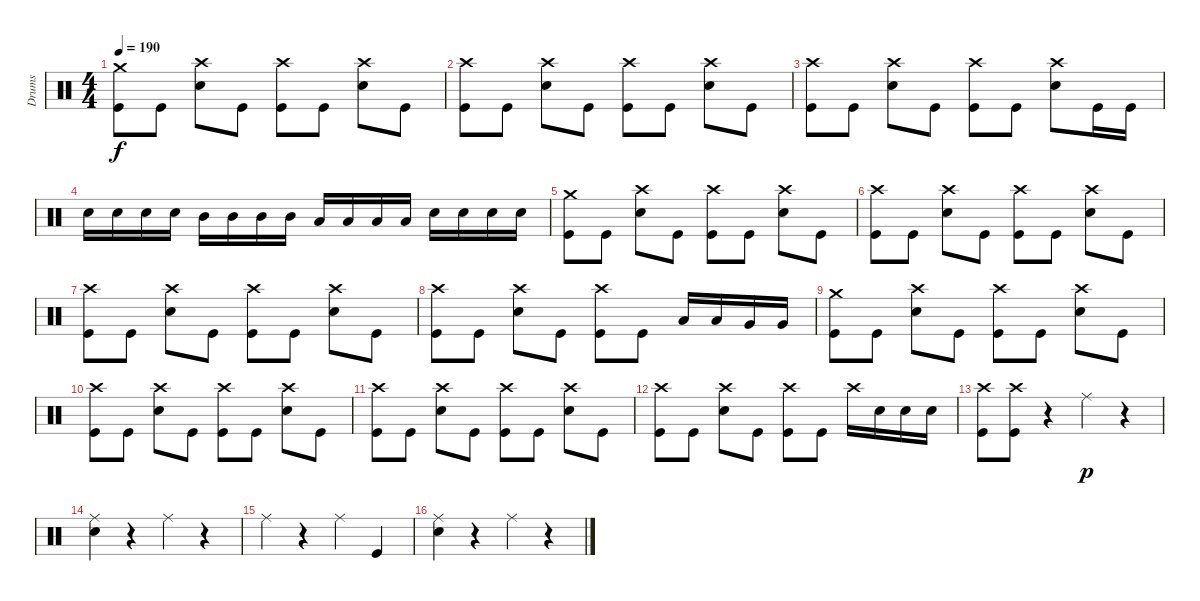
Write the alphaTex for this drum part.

\track ("Drums" "Drums") {instrument percussion}
\staff {score}
\articulation defaults
\ts (4 4)
\tempo 190
\clef neutral
\ks c
("Crash medium (hit)" "Kick (hit)").8{dy f} "Kick (hit)".8 ("Crash high (hit)" "Snare (hit) 2").8 "Kick (hit)".8 ("Crash high (hit)" "Kick (hit)").8 "Kick (hit)".8 ("Crash high (hit)" "Snare (hit) 2").8 "Kick (hit)".8 |
("Crash high (hit)" "Kick (hit)").8 "Kick (hit)".8 ("Crash high (hit)" "Snare (hit) 2").8 "Kick (hit)".8 ("Crash high (hit)" "Kick (hit)").8 "Kick (hit)".8 ("Crash high (hit)" "Snare (hit) 2").8 "Kick (hit)".8 |
("Crash high (hit)" "Kick (hit)").8 "Kick (hit)".8 ("Crash high (hit)" "Snare (hit) 2").8 "Kick (hit)".8 ("Crash high (hit)" "Kick (hit)").8 "Kick (hit)".8 ("Crash high (hit)" "Snare (hit) 2").8 "Kick (hit)".16 "Kick (hit)".16 |
"Snare (hit) 2".16 "Snare (hit) 2".16 "Snare (hit) 2".16 "Snare (hit) 2".16 "Mid Tom (hit)".16 "Mid Tom (hit)".16 "Mid Tom (hit)".16 "Mid Tom (hit)".16 "Low Tom (hit)".16 "Low Tom (hit)".16 "Low Tom (hit)".16 "Low Tom (hit)".16 "Snare (hit) 2".16 "Snare (hit) 2".16 "Snare (hit) 2".16 "Snare (hit) 2".16 |
("Crash medium (hit)" "Kick (hit)").8 "Kick (hit)".8 ("Crash high (hit)" "Snare (hit) 2").8 "Kick (hit)".8 ("Crash high (hit)" "Kick (hit)").8 "Kick (hit)".8 ("Crash high (hit)" "Snare (hit) 2").8 "Kick (hit)".8 |
("Crash high (hit)" "Kick (hit)").8 "Kick (hit)".8 ("Crash high (hit)" "Snare (hit) 2").8 "Kick (hit)".8 ("Crash high (hit)" "Kick (hit)").8 "Kick (hit)".8 ("Crash high (hit)" "Snare (hit) 2").8 "Kick (hit)".8 |
("Crash high (hit)" "Kick (hit)").8 "Kick (hit)".8 ("Crash high (hit)" "Snare (hit) 2").8 "Kick (hit)".8 ("Crash high (hit)" "Kick (hit)").8 "Kick (hit)".8 ("Crash high (hit)" "Snare (hit) 2").8 "Kick (hit)".8 |
("Crash high (hit)" "Kick (hit)").8 "Kick (hit)".8 ("Crash high (hit)" "Snare (hit) 2").8 "Kick (hit)".8 ("Crash high (hit)" "Kick (hit)").8 "Kick (hit)".8 "Low Tom (hit)".16 "Low Tom (hit)".16 "Very Low Tom (hit)".16 "Very Low Tom (hit)".16 |
("Crash medium (hit)" "Kick (hit)").8 "Kick (hit)".8 ("Crash high (hit)" "Snare (hit) 2").8 "Kick (hit)".8 ("Crash high (hit)" "Kick (hit)").8 "Kick (hit)".8 ("Crash high (hit)" "Snare (hit) 2").8 "Kick (hit)".8 |
("Crash high (hit)" "Kick (hit)").8 "Kick (hit)".8 ("Crash high (hit)" "Snare (hit) 2").8 "Kick (hit)".8 ("Crash high (hit)" "Kick (hit)").8 "Kick (hit)".8 ("Crash high (hit)" "Snare (hit) 2").8 "Kick (hit)".8 |
("Crash high (hit)" "Kick (hit)").8 "Kick (hit)".8 ("Crash high (hit)" "Snare (hit) 2").8 "Kick (hit)".8 ("Crash high (hit)" "Kick (hit)").8 "Kick (hit)".8 ("Crash high (hit)" "Snare (hit) 2").8 "Kick (hit)".8 |
("Crash high (hit)" "Kick (hit)").8 "Kick (hit)".8 ("Crash high (hit)" "Snare (hit) 2").8 "Kick (hit)".8 ("Crash high (hit)" "Kick (hit)").8 "Kick (hit)".8 "Crash high (hit)".16 "Snare (hit) 2".16 "Snare (hit) 2".16 "Snare (hit) 2".16 |
("Crash high (hit)" "Kick (hit)").8 ("Crash high (hit)" "Kick (hit)").8 r.4 "Ride (middle)".4{dy p} r.4 |
("Ride (middle)" "Snare (hit) 2").4 r.4 "Ride (middle)".4 r.4 |
"Ride (middle)".4 r.4 "Ride (middle)".4 "Kick (hit)".4 |
("Ride (middle)" "Snare (hit) 2").4 r.4 "Ride (middle)".4 r.4
